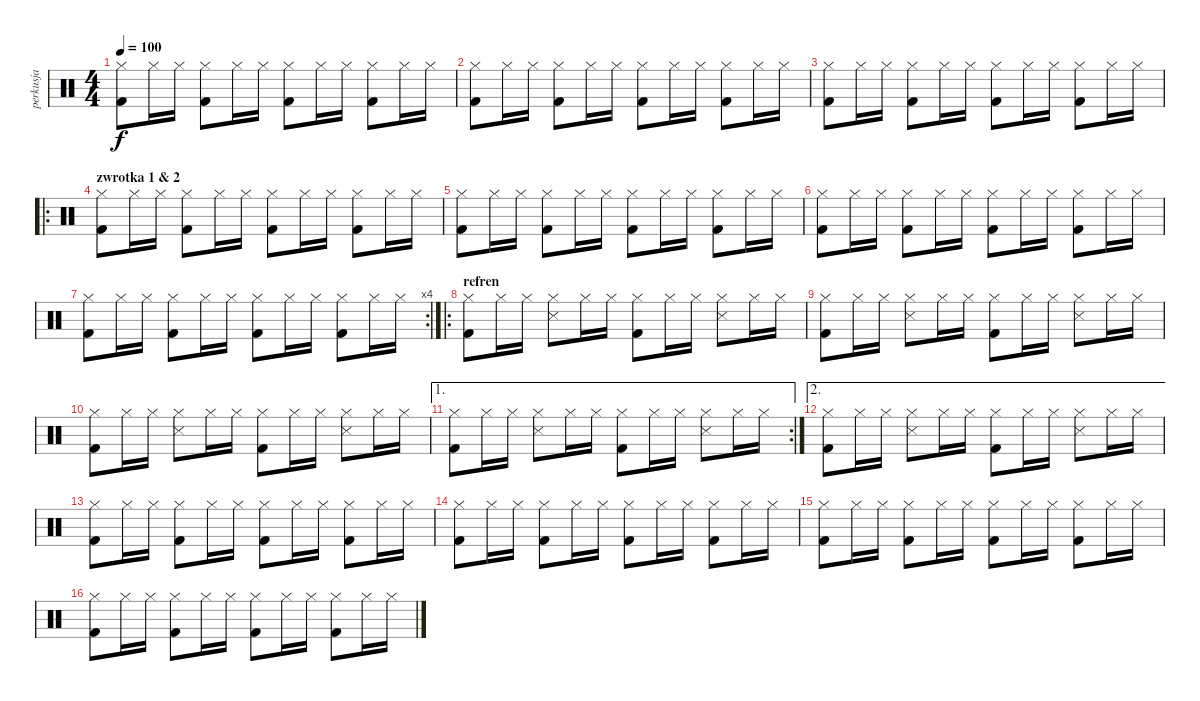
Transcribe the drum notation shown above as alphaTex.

\track ("perkusja" "perkusja") {instrument percussion}
\staff {score}
\articulation defaults
\ts (4 4)
\tempo 100
\clef neutral
\ks c
("Hi-Hat (closed)" "Kick (hit) 2").8{dy f} "Hi-Hat (closed)".16 "Hi-Hat (closed)".16 ("Hi-Hat (closed)" "Kick (hit) 2").8 "Hi-Hat (closed)".16 "Hi-Hat (closed)".16 ("Hi-Hat (closed)" "Kick (hit) 2").8 "Hi-Hat (closed)".16 "Hi-Hat (closed)".16 ("Hi-Hat (closed)" "Kick (hit) 2").8 "Hi-Hat (closed)".16 "Hi-Hat (closed)".16 |
("Hi-Hat (closed)" "Kick (hit) 2").8 "Hi-Hat (closed)".16 "Hi-Hat (closed)".16 ("Hi-Hat (closed)" "Kick (hit) 2").8 "Hi-Hat (closed)".16 "Hi-Hat (closed)".16 ("Hi-Hat (closed)" "Kick (hit) 2").8 "Hi-Hat (closed)".16 "Hi-Hat (closed)".16 ("Hi-Hat (closed)" "Kick (hit) 2").8 "Hi-Hat (closed)".16 "Hi-Hat (closed)".16 |
("Hi-Hat (closed)" "Kick (hit) 2").8 "Hi-Hat (closed)".16 "Hi-Hat (closed)".16 ("Hi-Hat (closed)" "Kick (hit) 2").8 "Hi-Hat (closed)".16 "Hi-Hat (closed)".16 ("Hi-Hat (closed)" "Kick (hit) 2").8 "Hi-Hat (closed)".16 "Hi-Hat (closed)".16 ("Hi-Hat (closed)" "Kick (hit) 2").8 "Hi-Hat (closed)".16 "Hi-Hat (closed)".16 |
\ro
\section ("" "zwrotka 1 & 2")
("Hi-Hat (closed)" "Kick (hit) 2").8 "Hi-Hat (closed)".16 "Hi-Hat (closed)".16 ("Hi-Hat (closed)" "Kick (hit) 2").8 "Hi-Hat (closed)".16 "Hi-Hat (closed)".16 ("Hi-Hat (closed)" "Kick (hit) 2").8 "Hi-Hat (closed)".16 "Hi-Hat (closed)".16 ("Hi-Hat (closed)" "Kick (hit) 2").8 "Hi-Hat (closed)".16 "Hi-Hat (closed)".16 |
("Hi-Hat (closed)" "Kick (hit) 2").8 "Hi-Hat (closed)".16 "Hi-Hat (closed)".16 ("Hi-Hat (closed)" "Kick (hit) 2").8 "Hi-Hat (closed)".16 "Hi-Hat (closed)".16 ("Hi-Hat (closed)" "Kick (hit) 2").8 "Hi-Hat (closed)".16 "Hi-Hat (closed)".16 ("Hi-Hat (closed)" "Kick (hit) 2").8 "Hi-Hat (closed)".16 "Hi-Hat (closed)".16 |
("Hi-Hat (closed)" "Kick (hit) 2").8 "Hi-Hat (closed)".16 "Hi-Hat (closed)".16 ("Hi-Hat (closed)" "Kick (hit) 2").8 "Hi-Hat (closed)".16 "Hi-Hat (closed)".16 ("Hi-Hat (closed)" "Kick (hit) 2").8 "Hi-Hat (closed)".16 "Hi-Hat (closed)".16 ("Hi-Hat (closed)" "Kick (hit) 2").8 "Hi-Hat (closed)".16 "Hi-Hat (closed)".16 |
\rc 4
("Hi-Hat (closed)" "Kick (hit) 2").8 "Hi-Hat (closed)".16 "Hi-Hat (closed)".16 ("Hi-Hat (closed)" "Kick (hit) 2").8 "Hi-Hat (closed)".16 "Hi-Hat (closed)".16 ("Hi-Hat (closed)" "Kick (hit) 2").8 "Hi-Hat (closed)".16 "Hi-Hat (closed)".16 ("Hi-Hat (closed)" "Kick (hit) 2").8 "Hi-Hat (closed)".16 "Hi-Hat (closed)".16 |
\ro
\section ("" "refren")
("Hi-Hat (closed)" "Kick (hit) 2").8 "Hi-Hat (closed)".16 "Hi-Hat (closed)".16 ("Hi-Hat (closed)" "Metronome (hit)").8 "Hi-Hat (closed)".16 "Hi-Hat (closed)".16 ("Hi-Hat (closed)" "Kick (hit) 2").8 "Hi-Hat (closed)".16 "Hi-Hat (closed)".16 ("Hi-Hat (closed)" "Metronome (hit)").8 "Hi-Hat (closed)".16 "Hi-Hat (closed)".16 |
("Hi-Hat (closed)" "Kick (hit) 2").8 "Hi-Hat (closed)".16 "Hi-Hat (closed)".16 ("Hi-Hat (closed)" "Metronome (hit)").8 "Hi-Hat (closed)".16 "Hi-Hat (closed)".16 ("Hi-Hat (closed)" "Kick (hit) 2").8 "Hi-Hat (closed)".16 "Hi-Hat (closed)".16 ("Hi-Hat (closed)" "Metronome (hit)").8 "Hi-Hat (closed)".16 "Hi-Hat (closed)".16 |
("Hi-Hat (closed)" "Kick (hit) 2").8 "Hi-Hat (closed)".16 "Hi-Hat (closed)".16 ("Hi-Hat (closed)" "Metronome (hit)").8 "Hi-Hat (closed)".16 "Hi-Hat (closed)".16 ("Hi-Hat (closed)" "Kick (hit) 2").8 "Hi-Hat (closed)".16 "Hi-Hat (closed)".16 ("Hi-Hat (closed)" "Metronome (hit)").8 "Hi-Hat (closed)".16 "Hi-Hat (closed)".16 |
\ae 1
\rc 2
("Hi-Hat (closed)" "Kick (hit) 2").8 "Hi-Hat (closed)".16 "Hi-Hat (closed)".16 ("Hi-Hat (closed)" "Metronome (hit)").8 "Hi-Hat (closed)".16 "Hi-Hat (closed)".16 ("Hi-Hat (closed)" "Kick (hit) 2").8 "Hi-Hat (closed)".16 "Hi-Hat (closed)".16 ("Hi-Hat (closed)" "Metronome (hit)").8 "Hi-Hat (closed)".16 "Hi-Hat (closed)".16 |
\ae 2
("Hi-Hat (closed)" "Kick (hit) 2").8 "Hi-Hat (closed)".16 "Hi-Hat (closed)".16 ("Hi-Hat (closed)" "Metronome (hit)").8 "Hi-Hat (closed)".16 "Hi-Hat (closed)".16 ("Hi-Hat (closed)" "Kick (hit) 2").8 "Hi-Hat (closed)".16 "Hi-Hat (closed)".16 ("Hi-Hat (closed)" "Metronome (hit)").8 "Hi-Hat (closed)".16 "Hi-Hat (closed)".16 |
("Hi-Hat (closed)" "Kick (hit) 2").8 "Hi-Hat (closed)".16 "Hi-Hat (closed)".16 ("Hi-Hat (closed)" "Kick (hit) 2").8 "Hi-Hat (closed)".16 "Hi-Hat (closed)".16 ("Hi-Hat (closed)" "Kick (hit) 2").8 "Hi-Hat (closed)".16 "Hi-Hat (closed)".16 ("Hi-Hat (closed)" "Kick (hit) 2").8 "Hi-Hat (closed)".16 "Hi-Hat (closed)".16 |
("Hi-Hat (closed)" "Kick (hit) 2").8 "Hi-Hat (closed)".16 "Hi-Hat (closed)".16 ("Hi-Hat (closed)" "Kick (hit) 2").8 "Hi-Hat (closed)".16 "Hi-Hat (closed)".16 ("Hi-Hat (closed)" "Kick (hit) 2").8 "Hi-Hat (closed)".16 "Hi-Hat (closed)".16 ("Hi-Hat (closed)" "Kick (hit) 2").8 "Hi-Hat (closed)".16 "Hi-Hat (closed)".16 |
("Hi-Hat (closed)" "Kick (hit) 2").8 "Hi-Hat (closed)".16 "Hi-Hat (closed)".16 ("Hi-Hat (closed)" "Kick (hit) 2").8 "Hi-Hat (closed)".16 "Hi-Hat (closed)".16 ("Hi-Hat (closed)" "Kick (hit) 2").8 "Hi-Hat (closed)".16 "Hi-Hat (closed)".16 ("Hi-Hat (closed)" "Kick (hit) 2").8 "Hi-Hat (closed)".16 "Hi-Hat (closed)".16 |
("Hi-Hat (closed)" "Kick (hit) 2").8 "Hi-Hat (closed)".16 "Hi-Hat (closed)".16 ("Hi-Hat (closed)" "Kick (hit) 2").8 "Hi-Hat (closed)".16 "Hi-Hat (closed)".16 ("Hi-Hat (closed)" "Kick (hit) 2").8 "Hi-Hat (closed)".16 "Hi-Hat (closed)".16 ("Hi-Hat (closed)" "Kick (hit) 2").8 "Hi-Hat (closed)".16 "Hi-Hat (closed)".16
